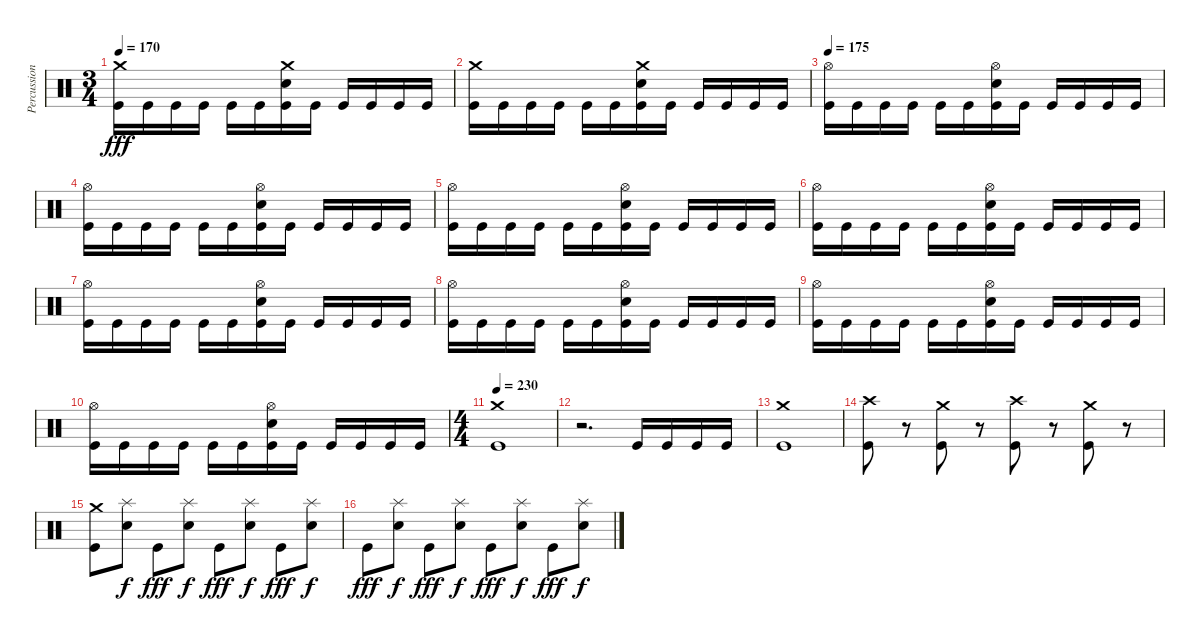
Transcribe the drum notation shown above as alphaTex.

\track ("Percussion" "Percussion") {instrument percussion}
\staff {score}
\articulation defaults
\ts (3 4)
\tempo 170
\clef neutral
\ks c
("Crash medium (hit)" "Kick (hit)").16{dy fff} "Kick (hit)".16 "Kick (hit)".16 "Kick (hit)".16 "Kick (hit)".16 "Kick (hit)".16 ("Crash medium (hit)" "Electric Snare (hit)" "Kick (hit)").16 "Kick (hit)".16 "Kick (hit)".16 "Kick (hit)".16 "Kick (hit)".16 "Kick (hit)".16 |
("Crash medium (hit)" "Kick (hit)").16 "Kick (hit)".16 "Kick (hit)".16 "Kick (hit)".16 "Kick (hit)".16 "Kick (hit)".16 ("Crash medium (hit)" "Electric Snare (hit)" "Kick (hit)").16 "Kick (hit)".16 "Kick (hit)".16 "Kick (hit)".16 "Kick (hit)".16 "Kick (hit)".16 |
\tempo 175
("Hi-Hat (open)" "Kick (hit)").16 "Kick (hit)".16 "Kick (hit)".16 "Kick (hit)".16 "Kick (hit)".16 "Kick (hit)".16 ("Hi-Hat (open)" "Electric Snare (hit)" "Kick (hit)").16 "Kick (hit)".16 "Kick (hit)".16 "Kick (hit)".16 "Kick (hit)".16 "Kick (hit)".16 |
("Hi-Hat (open)" "Kick (hit)").16 "Kick (hit)".16 "Kick (hit)".16 "Kick (hit)".16 "Kick (hit)".16 "Kick (hit)".16 ("Hi-Hat (open)" "Electric Snare (hit)" "Kick (hit)").16 "Kick (hit)".16 "Kick (hit)".16 "Kick (hit)".16 "Kick (hit)".16 "Kick (hit)".16 |
("Hi-Hat (open)" "Kick (hit)").16 "Kick (hit)".16 "Kick (hit)".16 "Kick (hit)".16 "Kick (hit)".16 "Kick (hit)".16 ("Hi-Hat (open)" "Electric Snare (hit)" "Kick (hit)").16 "Kick (hit)".16 "Kick (hit)".16 "Kick (hit)".16 "Kick (hit)".16 "Kick (hit)".16 |
("Hi-Hat (open)" "Kick (hit)").16 "Kick (hit)".16 "Kick (hit)".16 "Kick (hit)".16 "Kick (hit)".16 "Kick (hit)".16 ("Hi-Hat (open)" "Electric Snare (hit)" "Kick (hit)").16 "Kick (hit)".16 "Kick (hit)".16 "Kick (hit)".16 "Kick (hit)".16 "Kick (hit)".16 |
("Hi-Hat (open)" "Kick (hit)").16 "Kick (hit)".16 "Kick (hit)".16 "Kick (hit)".16 "Kick (hit)".16 "Kick (hit)".16 ("Hi-Hat (open)" "Electric Snare (hit)" "Kick (hit)").16 "Kick (hit)".16 "Kick (hit)".16 "Kick (hit)".16 "Kick (hit)".16 "Kick (hit)".16 |
("Hi-Hat (open)" "Kick (hit)").16 "Kick (hit)".16 "Kick (hit)".16 "Kick (hit)".16 "Kick (hit)".16 "Kick (hit)".16 ("Hi-Hat (open)" "Electric Snare (hit)" "Kick (hit)").16 "Kick (hit)".16 "Kick (hit)".16 "Kick (hit)".16 "Kick (hit)".16 "Kick (hit)".16 |
("Hi-Hat (open)" "Kick (hit)").16 "Kick (hit)".16 "Kick (hit)".16 "Kick (hit)".16 "Kick (hit)".16 "Kick (hit)".16 ("Hi-Hat (open)" "Electric Snare (hit)" "Kick (hit)").16 "Kick (hit)".16 "Kick (hit)".16 "Kick (hit)".16 "Kick (hit)".16 "Kick (hit)".16 |
("Hi-Hat (open)" "Kick (hit)").16 "Kick (hit)".16 "Kick (hit)".16 "Kick (hit)".16 "Kick (hit)".16 "Kick (hit)".16 ("Hi-Hat (open)" "Electric Snare (hit)" "Kick (hit)").16 "Kick (hit)".16 "Kick (hit)".16 "Kick (hit)".16 "Kick (hit)".16 "Kick (hit)".16 |
\ts (4 4)
\tempo 230
("Crash medium (hit)" "Kick (hit)").1 |
r.2{d} "Kick (hit)".16 "Kick (hit)".16 "Kick (hit)".16 "Kick (hit)".16 |
("Crash medium (hit)" "Kick (hit)").1 |
("Crash high (hit)" "Kick (hit)").8 r.8 ("Crash medium (hit)" "Kick (hit)").8 r.8 ("Crash high (hit)" "Kick (hit)").8 r.8 ("Crash medium (hit)" "Kick (hit)").8 r.8 |
("Crash medium (hit)" "Kick (hit)").8 ("Splash (hit)" "Electric Snare (hit)").8{dy f} "Kick (hit)".8{dy fff} ("Splash (hit)" "Electric Snare (hit)").8{dy f} "Kick (hit)".8{dy fff} ("Splash (hit)" "Electric Snare (hit)").8{dy f} "Kick (hit)".8{dy fff} ("Splash (hit)" "Electric Snare (hit)").8{dy f} |
"Kick (hit)".8{dy fff} ("Splash (hit)" "Electric Snare (hit)").8{dy f} "Kick (hit)".8{dy fff} ("Splash (hit)" "Electric Snare (hit)").8{dy f} "Kick (hit)".8{dy fff} ("Splash (hit)" "Electric Snare (hit)").8{dy f} "Kick (hit)".8{dy fff} ("Splash (hit)" "Electric Snare (hit)").8{dy f}
